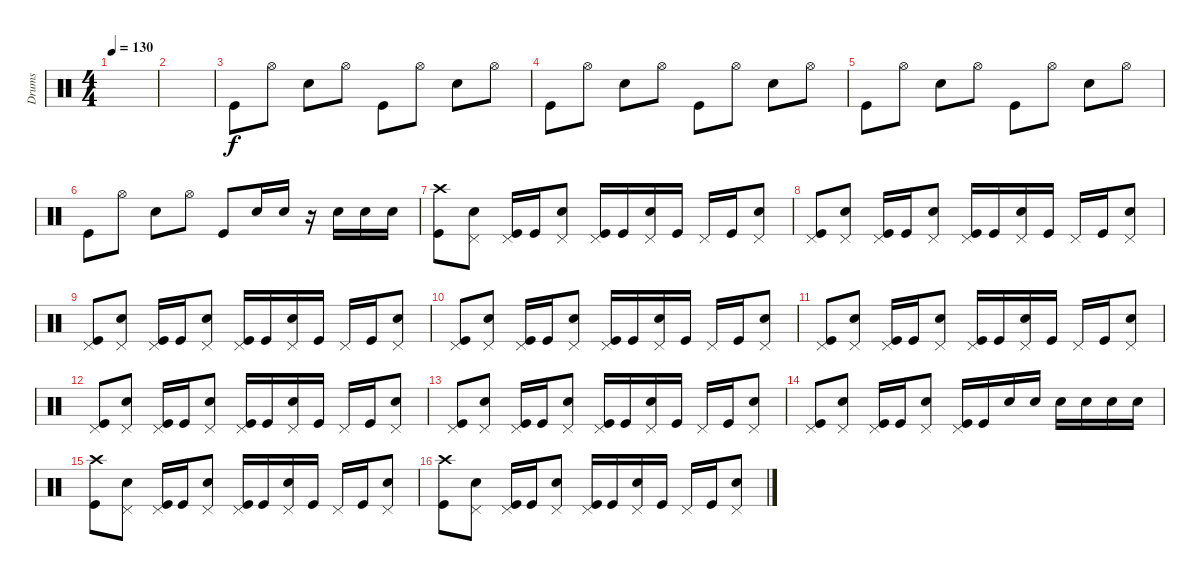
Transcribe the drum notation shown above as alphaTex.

\track ("Drums" "Drums") {instrument percussion}
\staff {score}
\articulation defaults
\ts (4 4)
\tempo 130
\clef neutral
\ks c
|
|
"Kick (hit)".8 "Hi-Hat (open)".8 "Electric Snare (hit)".8 "Hi-Hat (open)".8 "Kick (hit)".8 "Hi-Hat (open)".8 "Electric Snare (hit)".8 "Hi-Hat (open)".8 |
"Kick (hit)".8 "Hi-Hat (open)".8 "Electric Snare (hit)".8 "Hi-Hat (open)".8 "Kick (hit)".8 "Hi-Hat (open)".8 "Electric Snare (hit)".8 "Hi-Hat (open)".8 |
"Kick (hit)".8 "Hi-Hat (open)".8 "Electric Snare (hit)".8 "Hi-Hat (open)".8 "Kick (hit)".8 "Hi-Hat (open)".8 "Electric Snare (hit)".8 "Hi-Hat (open)".8 |
"Kick (hit)".8 "Hi-Hat (open)".8 "Electric Snare (hit)".8 "Hi-Hat (open)".8 "Kick (hit)".8 "Electric Snare (hit)".16 "Electric Snare (hit)".16 r.16 "Electric Snare (hit)".16 "Electric Snare (hit)".16 "Electric Snare (hit)".16 |
("Crash high (hit)" "Kick (hit)").8 ("Pedal Hi-Hat (hit)" "Electric Snare (hit)").8 ("Pedal Hi-Hat (hit)" "Kick (hit)").16 "Kick (hit)".16 ("Pedal Hi-Hat (hit)" "Electric Snare (hit)").8 ("Pedal Hi-Hat (hit)" "Kick (hit)").16 "Kick (hit)".16 ("Pedal Hi-Hat (hit)" "Electric Snare (hit)").16 "Kick (hit)".16 "Pedal Hi-Hat (hit)".16 "Kick (hit)".16 ("Pedal Hi-Hat (hit)" "Electric Snare (hit)").8 |
("Pedal Hi-Hat (hit)" "Kick (hit)").8 ("Pedal Hi-Hat (hit)" "Electric Snare (hit)").8 ("Pedal Hi-Hat (hit)" "Kick (hit)").16 "Kick (hit)".16 ("Pedal Hi-Hat (hit)" "Electric Snare (hit)").8 ("Pedal Hi-Hat (hit)" "Kick (hit)").16 "Kick (hit)".16 ("Pedal Hi-Hat (hit)" "Electric Snare (hit)").16 "Kick (hit)".16 "Pedal Hi-Hat (hit)".16 "Kick (hit)".16 ("Pedal Hi-Hat (hit)" "Electric Snare (hit)").8 |
("Pedal Hi-Hat (hit)" "Kick (hit)").8 ("Pedal Hi-Hat (hit)" "Electric Snare (hit)").8 ("Pedal Hi-Hat (hit)" "Kick (hit)").16 "Kick (hit)".16 ("Pedal Hi-Hat (hit)" "Electric Snare (hit)").8 ("Pedal Hi-Hat (hit)" "Kick (hit)").16 "Kick (hit)".16 ("Pedal Hi-Hat (hit)" "Electric Snare (hit)").16 "Kick (hit)".16 "Pedal Hi-Hat (hit)".16 "Kick (hit)".16 ("Pedal Hi-Hat (hit)" "Electric Snare (hit)").8 |
("Pedal Hi-Hat (hit)" "Kick (hit)").8 ("Pedal Hi-Hat (hit)" "Electric Snare (hit)").8 ("Pedal Hi-Hat (hit)" "Kick (hit)").16 "Kick (hit)".16 ("Pedal Hi-Hat (hit)" "Electric Snare (hit)").8 ("Pedal Hi-Hat (hit)" "Kick (hit)").16 "Kick (hit)".16 ("Pedal Hi-Hat (hit)" "Electric Snare (hit)").16 "Kick (hit)".16 "Pedal Hi-Hat (hit)".16 "Kick (hit)".16 ("Pedal Hi-Hat (hit)" "Electric Snare (hit)").8 |
("Pedal Hi-Hat (hit)" "Kick (hit)").8 ("Pedal Hi-Hat (hit)" "Electric Snare (hit)").8 ("Pedal Hi-Hat (hit)" "Kick (hit)").16 "Kick (hit)".16 ("Pedal Hi-Hat (hit)" "Electric Snare (hit)").8 ("Pedal Hi-Hat (hit)" "Kick (hit)").16 "Kick (hit)".16 ("Pedal Hi-Hat (hit)" "Electric Snare (hit)").16 "Kick (hit)".16 "Pedal Hi-Hat (hit)".16 "Kick (hit)".16 ("Pedal Hi-Hat (hit)" "Electric Snare (hit)").8 |
("Pedal Hi-Hat (hit)" "Kick (hit)").8 ("Pedal Hi-Hat (hit)" "Electric Snare (hit)").8 ("Pedal Hi-Hat (hit)" "Kick (hit)").16 "Kick (hit)".16 ("Pedal Hi-Hat (hit)" "Electric Snare (hit)").8 ("Pedal Hi-Hat (hit)" "Kick (hit)").16 "Kick (hit)".16 ("Pedal Hi-Hat (hit)" "Electric Snare (hit)").16 "Kick (hit)".16 "Pedal Hi-Hat (hit)".16 "Kick (hit)".16 ("Pedal Hi-Hat (hit)" "Electric Snare (hit)").8 |
("Pedal Hi-Hat (hit)" "Kick (hit)").8 ("Pedal Hi-Hat (hit)" "Electric Snare (hit)").8 ("Pedal Hi-Hat (hit)" "Kick (hit)").16 "Kick (hit)".16 ("Pedal Hi-Hat (hit)" "Electric Snare (hit)").8 ("Pedal Hi-Hat (hit)" "Kick (hit)").16 "Kick (hit)".16 ("Pedal Hi-Hat (hit)" "Electric Snare (hit)").16 "Kick (hit)".16 "Pedal Hi-Hat (hit)".16 "Kick (hit)".16 ("Pedal Hi-Hat (hit)" "Electric Snare (hit)").8 |
("Pedal Hi-Hat (hit)" "Kick (hit)").8 ("Pedal Hi-Hat (hit)" "Electric Snare (hit)").8 ("Pedal Hi-Hat (hit)" "Kick (hit)").16 "Kick (hit)".16 ("Pedal Hi-Hat (hit)" "Electric Snare (hit)").8 ("Pedal Hi-Hat (hit)" "Kick (hit)").16 "Kick (hit)".16 "Electric Snare (hit)".16 "Electric Snare (hit)".16 "Electric Snare (hit)".16 "Electric Snare (hit)".16 "Electric Snare (hit)".16 "Electric Snare (hit)".16 |
("Crash high (hit)" "Kick (hit)").8 ("Pedal Hi-Hat (hit)" "Electric Snare (hit)").8 ("Pedal Hi-Hat (hit)" "Kick (hit)").16 "Kick (hit)".16 ("Pedal Hi-Hat (hit)" "Electric Snare (hit)").8 ("Pedal Hi-Hat (hit)" "Kick (hit)").16 "Kick (hit)".16 ("Pedal Hi-Hat (hit)" "Electric Snare (hit)").16 "Kick (hit)".16 "Pedal Hi-Hat (hit)".16 "Kick (hit)".16 ("Pedal Hi-Hat (hit)" "Electric Snare (hit)").8 |
("Crash high (hit)" "Kick (hit)").8 ("Pedal Hi-Hat (hit)" "Electric Snare (hit)").8 ("Pedal Hi-Hat (hit)" "Kick (hit)").16 "Kick (hit)".16 ("Pedal Hi-Hat (hit)" "Electric Snare (hit)").8 ("Pedal Hi-Hat (hit)" "Kick (hit)").16 "Kick (hit)".16 ("Pedal Hi-Hat (hit)" "Electric Snare (hit)").16 "Kick (hit)".16 "Pedal Hi-Hat (hit)".16 "Kick (hit)".16 ("Pedal Hi-Hat (hit)" "Electric Snare (hit)").8
